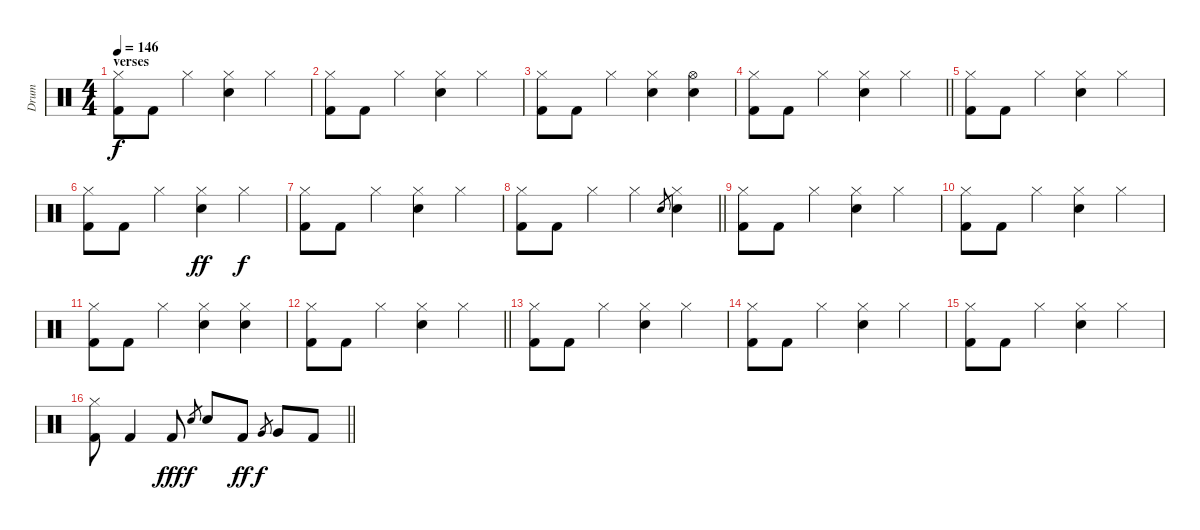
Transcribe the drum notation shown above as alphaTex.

\track ("Drum" "Drum") {instrument percussion}
\staff {score}
\articulation defaults
\ts (4 4)
\section ("" "verses")
\tempo 146
\clef neutral
\ks c
("Hi-Hat (closed)" "Kick (hit) 2").8{dy f} "Kick (hit) 2".8 "Hi-Hat (closed)".4 ("Hi-Hat (closed)" "Electric Snare (hit)").4 "Hi-Hat (closed)".4 |
("Hi-Hat (closed)" "Kick (hit) 2").8 "Kick (hit) 2".8 "Hi-Hat (closed)".4 ("Hi-Hat (closed)" "Electric Snare (hit)").4 "Hi-Hat (closed)".4 |
("Hi-Hat (closed)" "Kick (hit) 2").8 "Kick (hit) 2".8 "Hi-Hat (closed)".4 ("Hi-Hat (closed)" "Electric Snare (hit)").4 ("Hi-Hat (open)" "Electric Snare (hit)").4 |
\barLineRight lightlight
("Hi-Hat (closed)" "Kick (hit) 2").8 "Kick (hit) 2".8 "Hi-Hat (closed)".4 ("Hi-Hat (closed)" "Electric Snare (hit)").4 "Hi-Hat (closed)".4 |
("Hi-Hat (closed)" "Kick (hit) 2").8 "Kick (hit) 2".8 "Hi-Hat (closed)".4 ("Hi-Hat (closed)" "Electric Snare (hit)").4 "Hi-Hat (closed)".4 |
("Hi-Hat (closed)" "Kick (hit) 2").8 "Kick (hit) 2".8 "Hi-Hat (closed)".4 ("Hi-Hat (closed)" "Electric Snare (hit)").4{dy ff} "Hi-Hat (closed)".4{dy f} |
("Hi-Hat (closed)" "Kick (hit) 2").8 "Kick (hit) 2".8 "Hi-Hat (closed)".4 ("Hi-Hat (closed)" "Electric Snare (hit)").4 "Hi-Hat (closed)".4 |
\barLineRight lightlight
("Hi-Hat (closed)" "Kick (hit) 2").8 "Kick (hit) 2".8 "Hi-Hat (closed)".4 "Hi-Hat (closed)".4 "Electric Snare (hit)".8{gr} ("Hi-Hat (closed)" "Electric Snare (hit)").4 |
("Hi-Hat (closed)" "Kick (hit) 2").8 "Kick (hit) 2".8 "Hi-Hat (closed)".4 ("Hi-Hat (closed)" "Electric Snare (hit)").4 "Hi-Hat (closed)".4 |
("Hi-Hat (closed)" "Kick (hit) 2").8 "Kick (hit) 2".8 "Hi-Hat (closed)".4 ("Hi-Hat (closed)" "Electric Snare (hit)").4 "Hi-Hat (closed)".4 |
("Hi-Hat (closed)" "Kick (hit) 2").8 "Kick (hit) 2".8 "Hi-Hat (closed)".4 ("Hi-Hat (closed)" "Electric Snare (hit)").4 ("Hi-Hat (closed)" "Electric Snare (hit)").4 |
\barLineRight lightlight
("Hi-Hat (closed)" "Kick (hit) 2").8 "Kick (hit) 2".8 "Hi-Hat (closed)".4 ("Hi-Hat (closed)" "Electric Snare (hit)").4 "Hi-Hat (closed)".4 |
("Hi-Hat (closed)" "Kick (hit) 2").8 "Kick (hit) 2".8 "Hi-Hat (closed)".4 ("Hi-Hat (closed)" "Electric Snare (hit)").4 "Hi-Hat (closed)".4 |
("Hi-Hat (closed)" "Kick (hit) 2").8 "Kick (hit) 2".8 "Hi-Hat (closed)".4 ("Hi-Hat (closed)" "Electric Snare (hit)").4 "Hi-Hat (closed)".4 |
("Hi-Hat (closed)" "Kick (hit) 2").8 "Kick (hit) 2".8 "Hi-Hat (closed)".4 ("Hi-Hat (closed)" "Electric Snare (hit)").4 "Hi-Hat (closed)".4 |
\barLineRight lightlight
("Hi-Hat (closed)" "Kick (hit) 2").8 "Kick (hit) 2".4 "Kick (hit) 2".8{dy fff} "Electric Snare (hit)".8{gr dy f} "Electric Snare (hit)".8 "Kick (hit) 2".8{dy ff} "Very Low Tom (hit)".8{gr dy f} "Very Low Tom (hit)".8 "Kick (hit) 2".8
